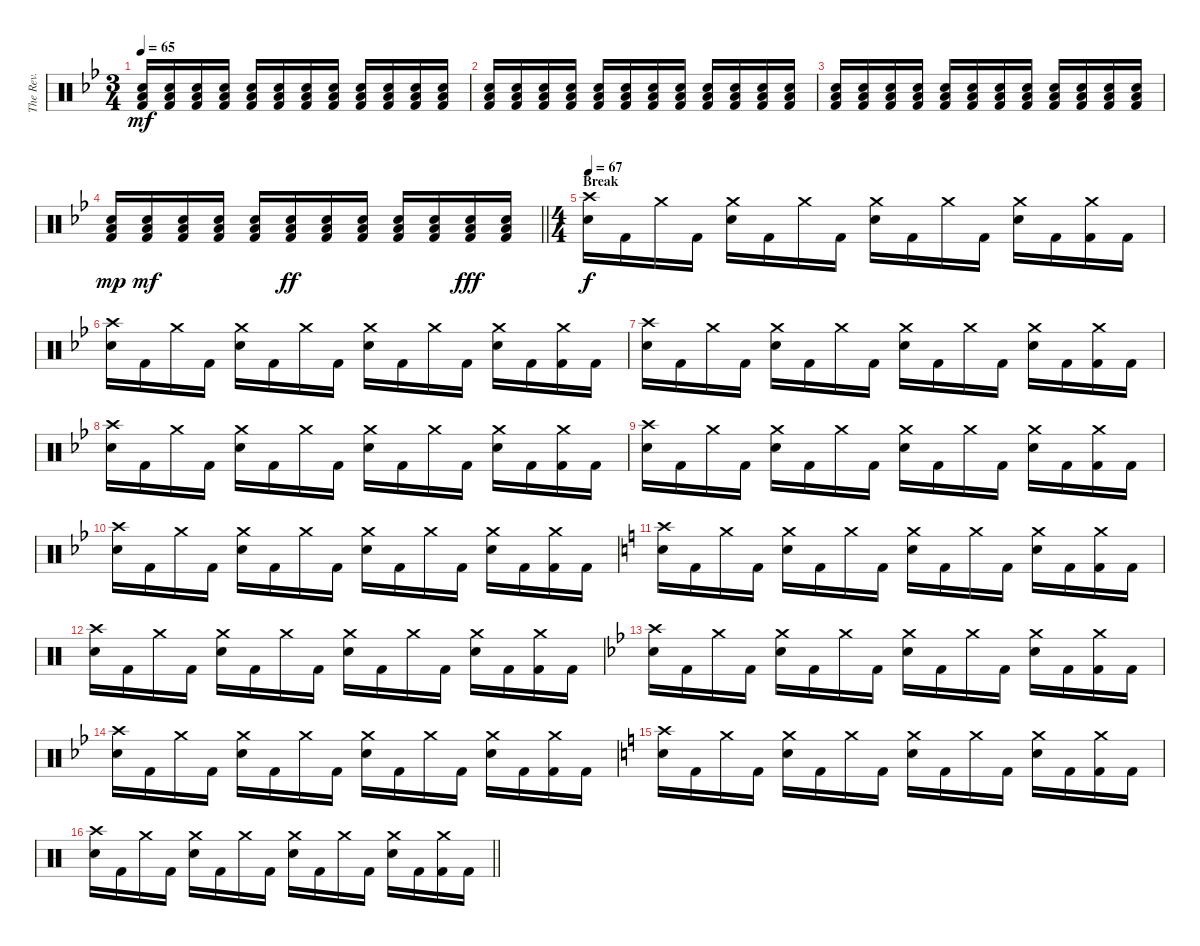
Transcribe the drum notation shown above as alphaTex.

\track ("The Rev." "The Rev.") {instrument percussion}
\staff {score}
\articulation defaults
\ts (3 4)
\tempo 65
\clef neutral
\ks bb
("Kick (hit) 2" "Electric Snare (hit)" "Low Tom (hit)").16{dy mf} ("Kick (hit) 2" "Electric Snare (hit)" "Low Tom (hit)").16 ("Kick (hit) 2" "Electric Snare (hit)" "Low Tom (hit)").16 ("Kick (hit) 2" "Electric Snare (hit)" "Low Tom (hit)").16 ("Kick (hit) 2" "Electric Snare (hit)" "Low Tom (hit)").16 ("Kick (hit) 2" "Electric Snare (hit)" "Low Tom (hit)").16 ("Kick (hit) 2" "Electric Snare (hit)" "Low Tom (hit)").16 ("Kick (hit) 2" "Electric Snare (hit)" "Low Tom (hit)").16 ("Kick (hit) 2" "Electric Snare (hit)" "Low Tom (hit)").16 ("Kick (hit) 2" "Electric Snare (hit)" "Low Tom (hit)").16 ("Kick (hit) 2" "Electric Snare (hit)" "Low Tom (hit)").16 ("Kick (hit) 2" "Electric Snare (hit)" "Low Tom (hit)").16 |
("Kick (hit) 2" "Electric Snare (hit)" "Low Tom (hit)").16 ("Kick (hit) 2" "Electric Snare (hit)" "Low Tom (hit)").16 ("Kick (hit) 2" "Electric Snare (hit)" "Low Tom (hit)").16 ("Kick (hit) 2" "Electric Snare (hit)" "Low Tom (hit)").16 ("Kick (hit) 2" "Electric Snare (hit)" "Low Tom (hit)").16 ("Kick (hit) 2" "Electric Snare (hit)" "Low Tom (hit)").16 ("Kick (hit) 2" "Electric Snare (hit)" "Low Tom (hit)").16 ("Kick (hit) 2" "Electric Snare (hit)" "Low Tom (hit)").16 ("Kick (hit) 2" "Electric Snare (hit)" "Low Tom (hit)").16 ("Kick (hit) 2" "Electric Snare (hit)" "Low Tom (hit)").16 ("Kick (hit) 2" "Electric Snare (hit)" "Low Tom (hit)").16 ("Kick (hit) 2" "Electric Snare (hit)" "Low Tom (hit)").16 |
("Kick (hit) 2" "Electric Snare (hit)" "Low Tom (hit)").16 ("Kick (hit) 2" "Electric Snare (hit)" "Low Tom (hit)").16 ("Kick (hit) 2" "Electric Snare (hit)" "Low Tom (hit)").16 ("Kick (hit) 2" "Electric Snare (hit)" "Low Tom (hit)").16 ("Kick (hit) 2" "Electric Snare (hit)" "Low Tom (hit)").16 ("Kick (hit) 2" "Electric Snare (hit)" "Low Tom (hit)").16 ("Kick (hit) 2" "Electric Snare (hit)" "Low Tom (hit)").16 ("Kick (hit) 2" "Electric Snare (hit)" "Low Tom (hit)").16 ("Kick (hit) 2" "Electric Snare (hit)" "Low Tom (hit)").16 ("Kick (hit) 2" "Electric Snare (hit)" "Low Tom (hit)").16 ("Kick (hit) 2" "Electric Snare (hit)" "Low Tom (hit)").16 ("Kick (hit) 2" "Electric Snare (hit)" "Low Tom (hit)").16 |
\barLineRight lightlight
("Kick (hit) 2" "Electric Snare (hit)" "Low Tom (hit)").16{dy mp} ("Kick (hit) 2" "Electric Snare (hit)" "Low Tom (hit)").16{dy mf} ("Kick (hit) 2" "Electric Snare (hit)" "Low Tom (hit)").16 ("Kick (hit) 2" "Electric Snare (hit)" "Low Tom (hit)").16 ("Kick (hit) 2" "Electric Snare (hit)" "Low Tom (hit)").16 ("Kick (hit) 2" "Electric Snare (hit)" "Low Tom (hit)").16{dy ff} ("Kick (hit) 2" "Electric Snare (hit)" "Low Tom (hit)").16 ("Kick (hit) 2" "Electric Snare (hit)" "Low Tom (hit)").16 ("Kick (hit) 2" "Electric Snare (hit)" "Low Tom (hit)").16 ("Kick (hit) 2" "Electric Snare (hit)" "Low Tom (hit)").16 ("Kick (hit) 2" "Electric Snare (hit)" "Low Tom (hit)").16{dy fff} ("Kick (hit) 2" "Electric Snare (hit)" "Low Tom (hit)").16 |
\ts (4 4)
\section ("" "Break")
\tempo 67
("Crash high (hit)" "Electric Snare (hit)").16{dy f} "Kick (hit) 2".16 "Crash medium (hit)".16 "Kick (hit) 2".16 ("Crash medium (hit)" "Electric Snare (hit)").16 "Kick (hit) 2".16 "Crash medium (hit)".16 "Kick (hit) 2".16 ("Crash medium (hit)" "Electric Snare (hit)").16 "Kick (hit) 2".16 "Crash medium (hit)".16 "Kick (hit) 2".16 ("Crash medium (hit)" "Electric Snare (hit)").16 "Kick (hit) 2".16 ("Crash medium (hit)" "Kick (hit) 2").16 "Kick (hit) 2".16 |
("Crash high (hit)" "Electric Snare (hit)").16 "Kick (hit) 2".16 "Crash medium (hit)".16 "Kick (hit) 2".16 ("Crash medium (hit)" "Electric Snare (hit)").16 "Kick (hit) 2".16 "Crash medium (hit)".16 "Kick (hit) 2".16 ("Crash medium (hit)" "Electric Snare (hit)").16 "Kick (hit) 2".16 "Crash medium (hit)".16 "Kick (hit) 2".16 ("Crash medium (hit)" "Electric Snare (hit)").16 "Kick (hit) 2".16 ("Crash medium (hit)" "Kick (hit) 2").16 "Kick (hit) 2".16 |
("Crash high (hit)" "Electric Snare (hit)").16 "Kick (hit) 2".16 "Crash medium (hit)".16 "Kick (hit) 2".16 ("Crash medium (hit)" "Electric Snare (hit)").16 "Kick (hit) 2".16 "Crash medium (hit)".16 "Kick (hit) 2".16 ("Crash medium (hit)" "Electric Snare (hit)").16 "Kick (hit) 2".16 "Crash medium (hit)".16 "Kick (hit) 2".16 ("Crash medium (hit)" "Electric Snare (hit)").16 "Kick (hit) 2".16 ("Crash medium (hit)" "Kick (hit) 2").16 "Kick (hit) 2".16 |
("Crash high (hit)" "Electric Snare (hit)").16 "Kick (hit) 2".16 "Crash medium (hit)".16 "Kick (hit) 2".16 ("Crash medium (hit)" "Electric Snare (hit)").16 "Kick (hit) 2".16 "Crash medium (hit)".16 "Kick (hit) 2".16 ("Crash medium (hit)" "Electric Snare (hit)").16 "Kick (hit) 2".16 "Crash medium (hit)".16 "Kick (hit) 2".16 ("Crash medium (hit)" "Electric Snare (hit)").16 "Kick (hit) 2".16 ("Crash medium (hit)" "Kick (hit) 2").16 "Kick (hit) 2".16 |
("Crash high (hit)" "Electric Snare (hit)").16 "Kick (hit) 2".16 "Crash medium (hit)".16 "Kick (hit) 2".16 ("Crash medium (hit)" "Electric Snare (hit)").16 "Kick (hit) 2".16 "Crash medium (hit)".16 "Kick (hit) 2".16 ("Crash medium (hit)" "Electric Snare (hit)").16 "Kick (hit) 2".16 "Crash medium (hit)".16 "Kick (hit) 2".16 ("Crash medium (hit)" "Electric Snare (hit)").16 "Kick (hit) 2".16 ("Crash medium (hit)" "Kick (hit) 2").16 "Kick (hit) 2".16 |
("Crash high (hit)" "Electric Snare (hit)").16 "Kick (hit) 2".16 "Crash medium (hit)".16 "Kick (hit) 2".16 ("Crash medium (hit)" "Electric Snare (hit)").16 "Kick (hit) 2".16 "Crash medium (hit)".16 "Kick (hit) 2".16 ("Crash medium (hit)" "Electric Snare (hit)").16 "Kick (hit) 2".16 "Crash medium (hit)".16 "Kick (hit) 2".16 ("Crash medium (hit)" "Electric Snare (hit)").16 "Kick (hit) 2".16 ("Crash medium (hit)" "Kick (hit) 2").16 "Kick (hit) 2".16 |
\ks c
("Crash high (hit)" "Electric Snare (hit)").16 "Kick (hit) 2".16 "Crash medium (hit)".16 "Kick (hit) 2".16 ("Crash medium (hit)" "Electric Snare (hit)").16 "Kick (hit) 2".16 "Crash medium (hit)".16 "Kick (hit) 2".16 ("Crash medium (hit)" "Electric Snare (hit)").16 "Kick (hit) 2".16 "Crash medium (hit)".16 "Kick (hit) 2".16 ("Crash medium (hit)" "Electric Snare (hit)").16 "Kick (hit) 2".16 ("Crash medium (hit)" "Kick (hit) 2").16 "Kick (hit) 2".16 |
("Crash high (hit)" "Electric Snare (hit)").16 "Kick (hit) 2".16 "Crash medium (hit)".16 "Kick (hit) 2".16 ("Crash medium (hit)" "Electric Snare (hit)").16 "Kick (hit) 2".16 "Crash medium (hit)".16 "Kick (hit) 2".16 ("Crash medium (hit)" "Electric Snare (hit)").16 "Kick (hit) 2".16 "Crash medium (hit)".16 "Kick (hit) 2".16 ("Crash medium (hit)" "Electric Snare (hit)").16 "Kick (hit) 2".16 ("Crash medium (hit)" "Kick (hit) 2").16 "Kick (hit) 2".16 |
\ks bb
("Crash high (hit)" "Electric Snare (hit)").16 "Kick (hit) 2".16 "Crash medium (hit)".16 "Kick (hit) 2".16 ("Crash medium (hit)" "Electric Snare (hit)").16 "Kick (hit) 2".16 "Crash medium (hit)".16 "Kick (hit) 2".16 ("Crash medium (hit)" "Electric Snare (hit)").16 "Kick (hit) 2".16 "Crash medium (hit)".16 "Kick (hit) 2".16 ("Crash medium (hit)" "Electric Snare (hit)").16 "Kick (hit) 2".16 ("Crash medium (hit)" "Kick (hit) 2").16 "Kick (hit) 2".16 |
("Crash high (hit)" "Electric Snare (hit)").16 "Kick (hit) 2".16 "Crash medium (hit)".16 "Kick (hit) 2".16 ("Crash medium (hit)" "Electric Snare (hit)").16 "Kick (hit) 2".16 "Crash medium (hit)".16 "Kick (hit) 2".16 ("Crash medium (hit)" "Electric Snare (hit)").16 "Kick (hit) 2".16 "Crash medium (hit)".16 "Kick (hit) 2".16 ("Crash medium (hit)" "Electric Snare (hit)").16 "Kick (hit) 2".16 ("Crash medium (hit)" "Kick (hit) 2").16 "Kick (hit) 2".16 |
\ks c
("Crash high (hit)" "Electric Snare (hit)").16 "Kick (hit) 2".16 "Crash medium (hit)".16 "Kick (hit) 2".16 ("Crash medium (hit)" "Electric Snare (hit)").16 "Kick (hit) 2".16 "Crash medium (hit)".16 "Kick (hit) 2".16 ("Crash medium (hit)" "Electric Snare (hit)").16 "Kick (hit) 2".16 "Crash medium (hit)".16 "Kick (hit) 2".16 ("Crash medium (hit)" "Electric Snare (hit)").16 "Kick (hit) 2".16 ("Crash medium (hit)" "Kick (hit) 2").16 "Kick (hit) 2".16 |
\barLineRight lightlight
("Crash high (hit)" "Electric Snare (hit)").16 "Kick (hit) 2".16 "Crash medium (hit)".16 "Kick (hit) 2".16 ("Crash medium (hit)" "Electric Snare (hit)").16 "Kick (hit) 2".16 "Crash medium (hit)".16 "Kick (hit) 2".16 ("Crash medium (hit)" "Electric Snare (hit)").16 "Kick (hit) 2".16 "Crash medium (hit)".16 "Kick (hit) 2".16 ("Crash medium (hit)" "Electric Snare (hit)").16 "Kick (hit) 2".16 ("Crash medium (hit)" "Kick (hit) 2").16 "Kick (hit) 2".16
